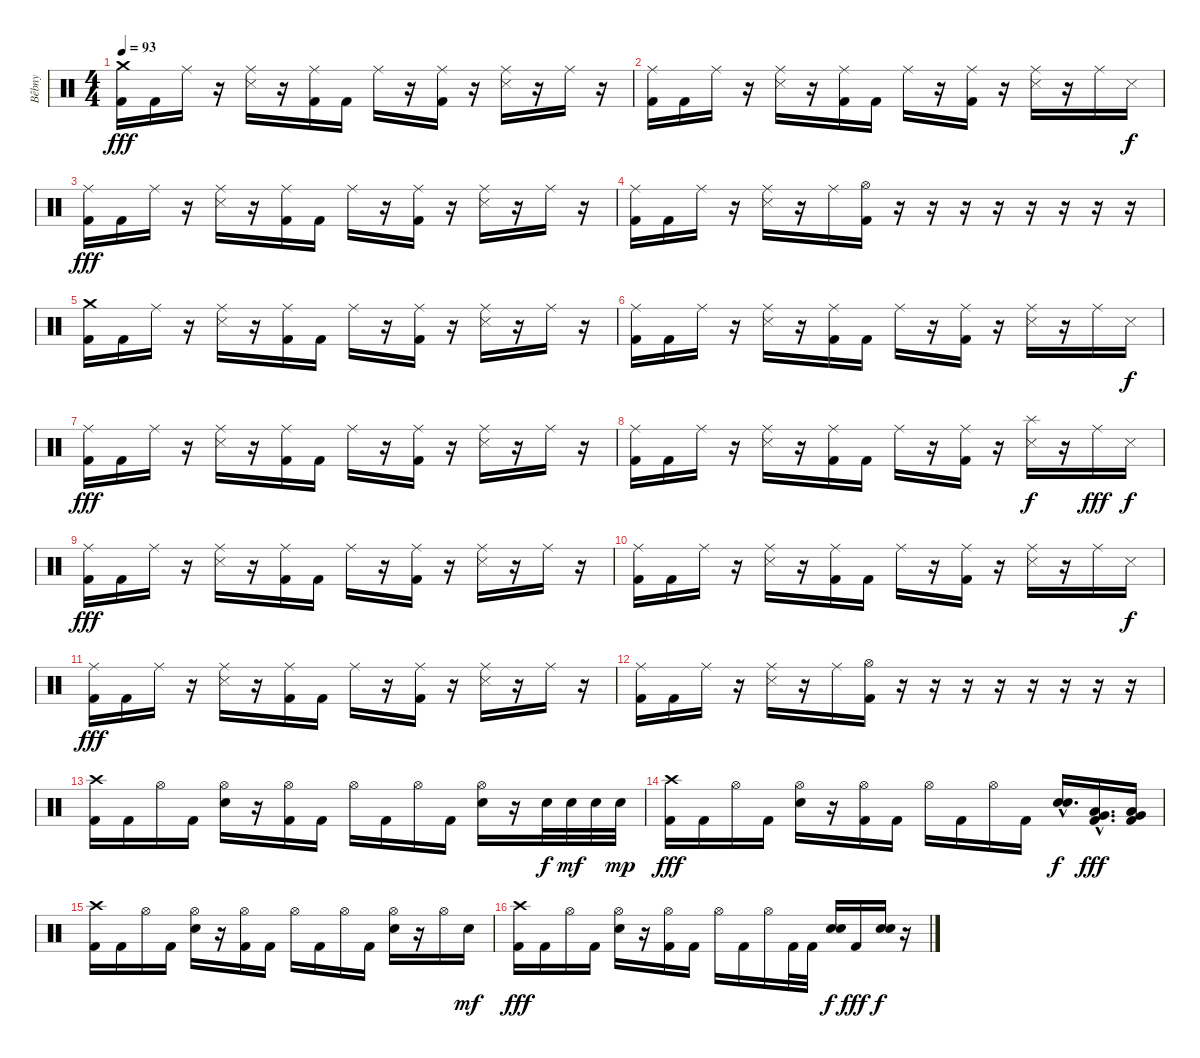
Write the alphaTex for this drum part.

\track ("Bêbny" "Bêbny") {instrument percussion}
\staff {score}
\articulation defaults
\ts (4 4)
\tempo 93
\clef neutral
\ks c
("Crash medium (hit)" "Kick (hit) 2").16{dy fff} "Kick (hit) 2".16 "Ride (middle)".16 r.16 ("Ride (middle)" "Snare (side stick) 3").16 r.16 ("Ride (middle)" "Kick (hit) 2").16 "Kick (hit) 2".16 "Ride (middle)".16 r.16 ("Ride (middle)" "Kick (hit) 2").16 r.16 ("Ride (middle)" "Snare (side stick) 3").16 r.16 "Ride (middle)".16 r.16 |
("Ride (middle)" "Kick (hit) 2").16 "Kick (hit) 2".16 "Ride (middle)".16 r.16 ("Ride (middle)" "Snare (side stick) 3").16 r.16 ("Ride (middle)" "Kick (hit) 2").16 "Kick (hit) 2".16 "Ride (middle)".16 r.16 ("Ride (middle)" "Kick (hit) 2").16 r.16 ("Ride (middle)" "Snare (side stick) 3").16 r.16 "Ride (middle)".16 "Snare (side stick) 3".16{dy f} |
("Ride (middle)" "Kick (hit) 2").16{dy fff} "Kick (hit) 2".16 "Ride (middle)".16 r.16 ("Ride (middle)" "Snare (side stick) 3").16 r.16 ("Ride (middle)" "Kick (hit) 2").16 "Kick (hit) 2".16 "Ride (middle)".16 r.16 ("Ride (middle)" "Kick (hit) 2").16 r.16 ("Ride (middle)" "Snare (side stick) 3").16 r.16 "Ride (middle)".16 r.16 |
("Ride (middle)" "Kick (hit) 2").16 "Kick (hit) 2".16 "Ride (middle)".16 r.16 ("Ride (middle)" "Snare (side stick) 3").16 r.16 "Ride (middle)".16 ("Hi-Hat (open)" "Kick (hit) 2").16 r.16 r.16 r.16 r.16 r.16 r.16 r.16 r.16 |
("Crash medium (hit)" "Kick (hit) 2").16 "Kick (hit) 2".16 "Ride (middle)".16 r.16 ("Ride (middle)" "Snare (side stick) 3").16 r.16 ("Ride (middle)" "Kick (hit) 2").16 "Kick (hit) 2".16 "Ride (middle)".16 r.16 ("Ride (middle)" "Kick (hit) 2").16 r.16 ("Ride (middle)" "Snare (side stick) 3").16 r.16 "Ride (middle)".16 r.16 |
("Ride (middle)" "Kick (hit) 2").16 "Kick (hit) 2".16 "Ride (middle)".16 r.16 ("Ride (middle)" "Snare (side stick) 3").16 r.16 ("Ride (middle)" "Kick (hit) 2").16 "Kick (hit) 2".16 "Ride (middle)".16 r.16 ("Ride (middle)" "Kick (hit) 2").16 r.16 ("Ride (middle)" "Snare (side stick) 3").16 r.16 "Ride (middle)".16 "Snare (side stick) 3".16{dy f} |
("Ride (middle)" "Kick (hit) 2").16{dy fff} "Kick (hit) 2".16 "Ride (middle)".16 r.16 ("Ride (middle)" "Snare (side stick) 3").16 r.16 ("Ride (middle)" "Kick (hit) 2").16 "Kick (hit) 2".16 "Ride (middle)".16 r.16 ("Ride (middle)" "Kick (hit) 2").16 r.16 ("Ride (middle)" "Snare (side stick) 3").16 r.16 "Ride (middle)".16 r.16 |
("Ride (middle)" "Kick (hit) 2").16 "Kick (hit) 2".16 "Ride (middle)".16 r.16 ("Ride (middle)" "Snare (side stick) 3").16 r.16 ("Ride (middle)" "Kick (hit) 2").16 "Kick (hit) 2".16 "Ride (middle)".16 r.16 ("Ride (middle)" "Kick (hit) 2").16 r.16 ("Splash (hit)" "Snare (side stick) 3").16{dy f} r.16 "Ride (middle)".16{dy fff} "Snare (side stick) 3".16{dy f} |
("Ride (middle)" "Kick (hit) 2").16{dy fff} "Kick (hit) 2".16 "Ride (middle)".16 r.16 ("Ride (middle)" "Snare (side stick) 3").16 r.16 ("Ride (middle)" "Kick (hit) 2").16 "Kick (hit) 2".16 "Ride (middle)".16 r.16 ("Ride (middle)" "Kick (hit) 2").16 r.16 ("Ride (middle)" "Snare (side stick) 3").16 r.16 "Ride (middle)".16 r.16 |
("Ride (middle)" "Kick (hit) 2").16 "Kick (hit) 2".16 "Ride (middle)".16 r.16 ("Ride (middle)" "Snare (side stick) 3").16 r.16 ("Ride (middle)" "Kick (hit) 2").16 "Kick (hit) 2".16 "Ride (middle)".16 r.16 ("Ride (middle)" "Kick (hit) 2").16 r.16 ("Ride (middle)" "Snare (side stick) 3").16 r.16 "Ride (middle)".16 "Snare (side stick) 3".16{dy f} |
("Ride (middle)" "Kick (hit) 2").16{dy fff} "Kick (hit) 2".16 "Ride (middle)".16 r.16 ("Ride (middle)" "Snare (side stick) 3").16 r.16 ("Ride (middle)" "Kick (hit) 2").16 "Kick (hit) 2".16 "Ride (middle)".16 r.16 ("Ride (middle)" "Kick (hit) 2").16 r.16 ("Ride (middle)" "Snare (side stick) 3").16 r.16 "Ride (middle)".16 r.16 |
("Ride (middle)" "Kick (hit) 2").16 "Kick (hit) 2".16 "Ride (middle)".16 r.16 ("Ride (middle)" "Snare (side stick) 3").16 r.16 "Ride (middle)".16 ("Hi-Hat (open)" "Kick (hit) 2").16 r.16 r.16 r.16 r.16 r.16 r.16 r.16 r.16 |
("Crash high (hit)" "Kick (hit) 2").16 "Kick (hit) 2".16 "Hi-Hat (open)".16 "Kick (hit) 2".16 ("Hi-Hat (open)" "Electric Snare (hit)").16 r.16 ("Hi-Hat (open)" "Kick (hit) 2").16 "Kick (hit) 2".16 "Hi-Hat (open)".16 "Kick (hit) 2".16 "Hi-Hat (open)".16 "Kick (hit) 2".16 ("Hi-Hat (open)" "Electric Snare (hit)").16 r.16 "Electric Snare (hit)".32{dy f} "Electric Snare (hit)".32{dy mf} "Electric Snare (hit)".32 "Electric Snare (hit)".32{dy mp} |
("Crash high (hit)" "Kick (hit) 2").16{dy fff} "Kick (hit) 2".16 "Hi-Hat (open)".16 "Kick (hit) 2".16 ("Hi-Hat (open)" "Electric Snare (hit)").16 r.16 ("Hi-Hat (open)" "Kick (hit) 2").16 "Kick (hit) 2".16 "Hi-Hat (open)".16 "Kick (hit) 2".16 "Hi-Hat (open)".16 "Kick (hit) 2".16 ("Electric Snare (hit)"{hac} "Electric Snare (hit)"{hac}).16{d bd 120 dy f} ("Very Low Tom (hit)"{hac} "Low Floor Tom (hit)"{hac} "Kick (hit) 2"{hac}).16{d dy fff} ("Very Low Tom (hit)" "Low Floor Tom (hit)" "Kick (hit) 2").16 |
("Crash high (hit)" "Kick (hit) 2").16 "Kick (hit) 2".16 "Hi-Hat (open)".16 "Kick (hit) 2".16 ("Hi-Hat (open)" "Electric Snare (hit)").16 r.16 ("Hi-Hat (open)" "Kick (hit) 2").16 "Kick (hit) 2".16 "Hi-Hat (open)".16 "Kick (hit) 2".16 "Hi-Hat (open)".16 "Kick (hit) 2".16 ("Hi-Hat (open)" "Electric Snare (hit)").16 r.16 "Hi-Hat (open)".16 "Electric Snare (hit)".16{dy mf} |
("Crash high (hit)" "Kick (hit) 2").16{dy fff} "Kick (hit) 2".16 "Hi-Hat (open)".16 "Kick (hit) 2".16 ("Hi-Hat (open)" "Electric Snare (hit)").16 r.16 ("Hi-Hat (open)" "Kick (hit) 2").16 "Kick (hit) 2".16 "Hi-Hat (open)".16 "Kick (hit) 2".16 "Hi-Hat (open)".16 "Kick (hit) 2".32 "Kick (hit) 2".32 ("Electric Snare (hit)" "Electric Snare (hit)").16{bd 120 dy f} "Kick (hit) 2".16{dy fff} ("Electric Snare (hit)" "Electric Snare (hit)").16{bd 120 dy f} r.16
